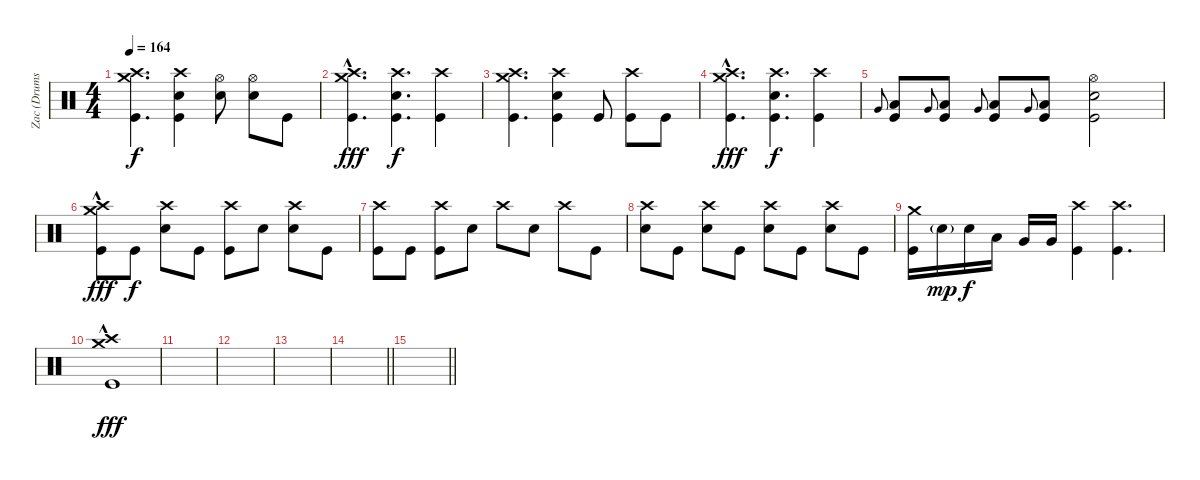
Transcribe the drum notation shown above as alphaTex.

\track ("Zac (Drums)" "Zac (Drums") {instrument percussion}
\staff {score}
\articulation defaults
\ts (4 4)
\tempo 164
\clef neutral
\ks c
("Crash high (hit)" "Crash medium (hit)" "Kick (hit)").4{d dy f} ("Crash high (hit)" "Electric Snare (hit)" "Kick (hit)").4 ("Hi-Hat (open)" "Electric Snare (hit)").8 ("Hi-Hat (open)" "Electric Snare (hit)").8 "Kick (hit)".8 |
("Crash high (hit)"{hac} "Crash medium (hit)" "Kick (hit)").4{d dy fff} ("Crash high (hit)" "Electric Snare (hit)" "Kick (hit)").4{d dy f} ("Crash high (hit)" "Kick (hit)").4 |
("Crash high (hit)" "Crash medium (hit)" "Kick (hit)").4{d} ("Crash high (hit)" "Electric Snare (hit)" "Kick (hit)").4 "Kick (hit)".8 ("Crash high (hit)" "Kick (hit)").8 "Kick (hit)".8 |
("Crash high (hit)"{hac} "Crash medium (hit)" "Kick (hit)").4{d dy fff} ("Crash high (hit)" "Electric Snare (hit)" "Kick (hit)").4{d dy f} ("Crash high (hit)" "Kick (hit)").4 |
"Very Low Tom (hit)".8{gr onbeat} ("Low Floor Tom (hit)" "Kick (hit)").8 "Very Low Tom (hit)".8{gr onbeat} ("Low Floor Tom (hit)" "Kick (hit)").8 "Very Low Tom (hit)".8{gr onbeat} ("Low Floor Tom (hit)" "Kick (hit)").8 "Very Low Tom (hit)".8{gr onbeat} ("Low Floor Tom (hit)" "Kick (hit)").8 ("Hi-Hat (open)" "Electric Snare (hit)" "Kick (hit)").2 |
("Crash high (hit)"{hac} "Crash medium (hit)" "Kick (hit)").8{dy fff} "Kick (hit)".8{dy f} ("Crash high (hit)" "Electric Snare (hit)").8 "Kick (hit)".8 ("Crash high (hit)" "Kick (hit)").8 "Electric Snare (hit)".8 ("Crash high (hit)" "Electric Snare (hit)").8 "Kick (hit)".8 |
("Crash high (hit)" "Kick (hit)").8 "Kick (hit)".8 ("Crash high (hit)" "Kick (hit)").8 "Electric Snare (hit)".8 "Crash high (hit)".8 "Electric Snare (hit)".8 "Crash high (hit)".8 "Kick (hit)".8 |
("Crash high (hit)" "Electric Snare (hit)").8 "Kick (hit)".8 ("Crash high (hit)" "Electric Snare (hit)").8 "Kick (hit)".8 ("Crash high (hit)" "Electric Snare (hit)").8 "Kick (hit)".8 ("Crash high (hit)" "Electric Snare (hit)").8 "Kick (hit)".8 |
("Crash medium (hit)" "Kick (hit)").16 "Electric Snare (hit)"{g}.16{dy mp} "Electric Snare (hit)".16{dy f} "Low Tom (hit)".16 "Very Low Tom (hit)".16 "Very Low Tom (hit)".16 ("Crash high (hit)" "Kick (hit)").4 ("Crash high (hit)" "Kick (hit)").4{d} |
("Crash high (hit)"{hac} "Crash medium (hit)" "Kick (hit)").1{dy fff} |
|
|
|
\barLineRight lightlight
|
\barLineRight lightlight
